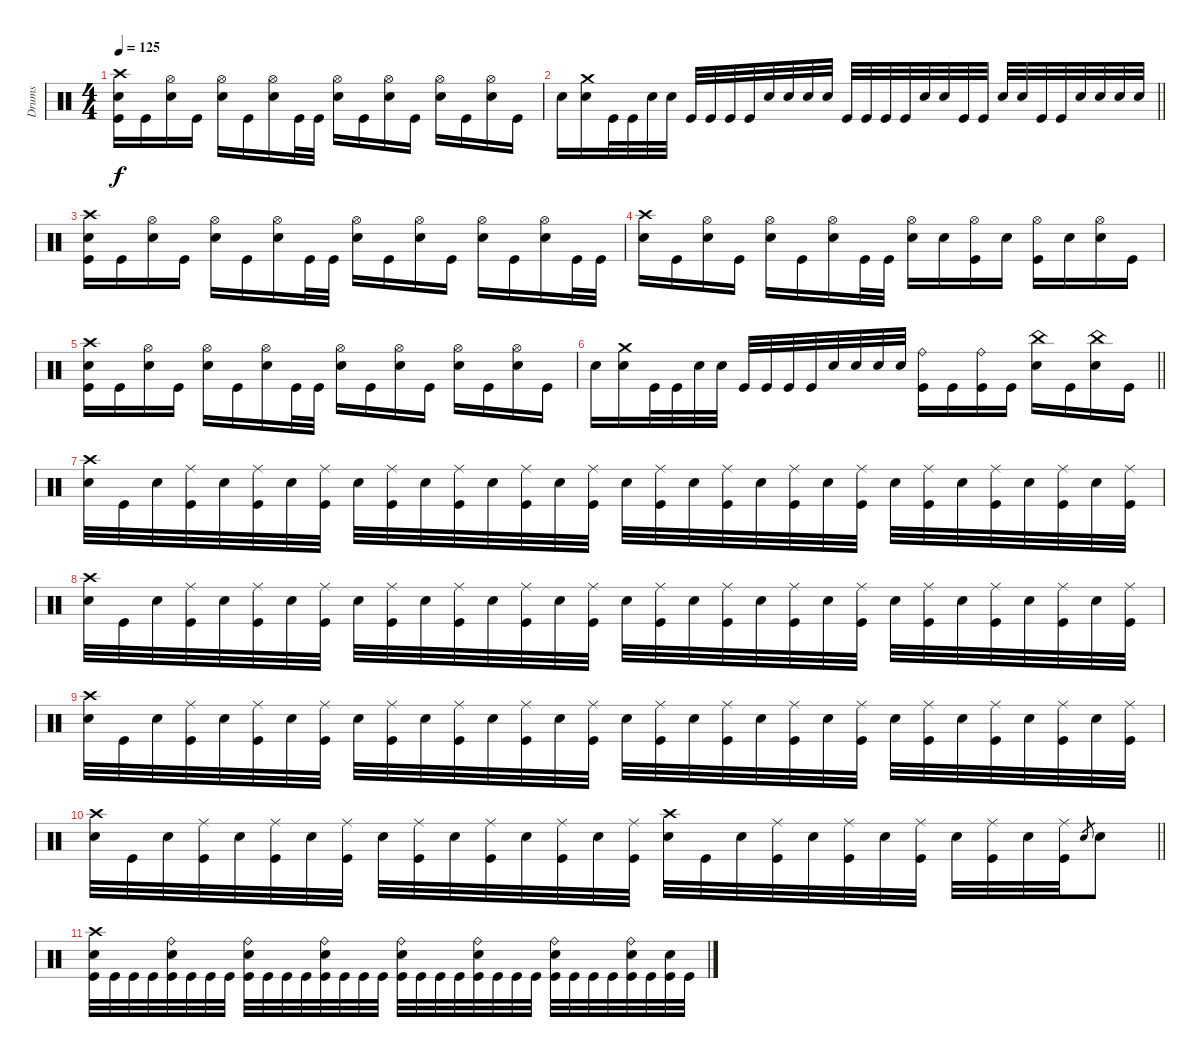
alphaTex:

\track ("Drums" "Drums") {instrument percussion}
\staff
\articulation defaults
\ts (4 4)
\tempo 125
\clef neutral
\ks c
("Crash high (hit)" "Electric Snare (hit)" "Kick (hit)").16{dy f} "Kick (hit)".16 ("Hi-Hat (open)" "Electric Snare (hit)").16 "Kick (hit)".16 ("Hi-Hat (open)" "Electric Snare (hit)").16 "Kick (hit)".16 ("Hi-Hat (open)" "Electric Snare (hit)").16 "Kick (hit)".32 "Kick (hit)".32 ("Hi-Hat (open)" "Electric Snare (hit)").16 "Kick (hit)".16 ("Hi-Hat (open)" "Electric Snare (hit)").16 "Kick (hit)".16 ("Hi-Hat (open)" "Electric Snare (hit)").16 "Kick (hit)".16 ("Hi-Hat (open)" "Electric Snare (hit)").16 "Kick (hit)".16 |
\barLineRight lightlight "Electric Snare (hit)".16
("Crash medium (hit)" "Electric Snare (hit)").16 "Kick (hit)".32 "Kick (hit)".32 "Electric Snare (hit)".32 "Electric Snare (hit)".32 "Kick (hit)".32 "Kick (hit)".32 "Kick (hit)".32 "Kick (hit)".32 "Electric Snare (hit)".32 "Electric Snare (hit)".32 "Electric Snare (hit)".32 "Electric Snare (hit)".32 "Kick (hit)".32 "Kick (hit)".32 "Kick (hit)".32 "Kick (hit)".32 "Electric Snare (hit)".32 "Electric Snare (hit)".32 "Kick (hit)".32 "Kick (hit)".32 "Electric Snare (hit)".32 "Electric Snare (hit)".32 "Kick (hit)".32 "Kick (hit)".32 "Electric Snare (hit)".32 "Electric Snare (hit)".32 "Electric Snare (hit)".32 "Electric Snare (hit)".32 |
("Crash high (hit)" "Electric Snare (hit)" "Kick (hit)").16 "Kick (hit)".16 ("Hi-Hat (open)" "Electric Snare (hit)").16 "Kick (hit)".16 ("Hi-Hat (open)" "Electric Snare (hit)").16 "Kick (hit)".16 ("Hi-Hat (open)" "Electric Snare (hit)").16 "Kick (hit)".32 "Kick (hit)".32 ("Hi-Hat (open)" "Electric Snare (hit)").16 "Kick (hit)".16 ("Hi-Hat (open)" "Electric Snare (hit)").16 "Kick (hit)".16 ("Hi-Hat (open)" "Electric Snare (hit)").16 "Kick (hit)".16 ("Hi-Hat (open)" "Electric Snare (hit)").16 "Kick (hit)".32 "Kick (hit)".32 |
("Crash high (hit)" "Electric Snare (hit)").16 "Kick (hit)".16 ("Hi-Hat (open)" "Electric Snare (hit)").16 "Kick (hit)".16 ("Hi-Hat (open)" "Electric Snare (hit)").16 "Kick (hit)".16 ("Hi-Hat (open)" "Electric Snare (hit)").16 "Kick (hit)".32 "Kick (hit)".32 ("Hi-Hat (open)" "Electric Snare (hit)").16 "Electric Snare (hit)".16 ("Hi-Hat (open)" "Kick (hit)").16 "Electric Snare (hit)".16 ("Hi-Hat (open)" "Kick (hit)").16 "Electric Snare (hit)".16 ("Hi-Hat (open)" "Electric Snare (hit)").16 "Kick (hit)".16 |
("Crash high (hit)" "Electric Snare (hit)" "Kick (hit)").16 "Kick (hit)".16 ("Hi-Hat (open)" "Electric Snare (hit)").16 "Kick (hit)".16 ("Hi-Hat (open)" "Electric Snare (hit)").16 "Kick (hit)".16 ("Hi-Hat (open)" "Electric Snare (hit)").16 "Kick (hit)".32 "Kick (hit)".32 ("Hi-Hat (open)" "Electric Snare (hit)").16 "Kick (hit)".16 ("Hi-Hat (open)" "Electric Snare (hit)").16 "Kick (hit)".16 ("Hi-Hat (open)" "Electric Snare (hit)").16 "Kick (hit)".16 ("Hi-Hat (open)" "Electric Snare (hit)").16 "Kick (hit)".16 |
\barLineRight lightlight "Electric Snare (hit)".16
("Crash medium (hit)" "Electric Snare (hit)").16 "Kick (hit)".32 "Kick (hit)".32 "Electric Snare (hit)".32 "Electric Snare (hit)".32 "Kick (hit)".32 "Kick (hit)".32 "Kick (hit)".32 "Kick (hit)".32 "Electric Snare (hit)".32 "Electric Snare (hit)".32 "Electric Snare (hit)".32 "Electric Snare (hit)".32 ("Ride (bell)" "Kick (hit)").16 "Kick (hit)".16 ("Ride (bell)" "Kick (hit)").16 "Kick (hit)".16 ("China (hit)" "Electric Snare (hit)").16 "Kick (hit)".16 ("China (hit)" "Electric Snare (hit)").16 "Kick (hit)".16 |
("Crash high (hit)" "Electric Snare (hit)").32 "Kick (hit)".32 "Electric Snare (hit)".32 ("Ride (middle)" "Kick (hit)").32 "Electric Snare (hit)".32 ("Ride (middle)" "Kick (hit)").32 "Electric Snare (hit)".32 ("Ride (middle)" "Kick (hit)").32 "Electric Snare (hit)".32 ("Ride (middle)" "Kick (hit)").32 "Electric Snare (hit)".32 ("Ride (middle)" "Kick (hit)").32 "Electric Snare (hit)".32 ("Ride (middle)" "Kick (hit)").32 "Electric Snare (hit)".32 ("Ride (middle)" "Kick (hit)").32 "Electric Snare (hit)".32 ("Ride (middle)" "Kick (hit)").32 "Electric Snare (hit)".32 ("Ride (middle)" "Kick (hit)").32 "Electric Snare (hit)".32 ("Ride (middle)" "Kick (hit)").32 "Electric Snare (hit)".32 ("Ride (middle)" "Kick (hit)").32 "Electric Snare (hit)".32 ("Ride (middle)" "Kick (hit)").32 "Electric Snare (hit)".32 ("Ride (middle)" "Kick (hit)").32 "Electric Snare (hit)".32 ("Ride (middle)" "Kick (hit)").32 "Electric Snare (hit)".32 ("Ride (middle)" "Kick (hit)").32 |
("Crash high (hit)" "Electric Snare (hit)").32 "Kick (hit)".32 "Electric Snare (hit)".32 ("Ride (middle)" "Kick (hit)").32 "Electric Snare (hit)".32 ("Ride (middle)" "Kick (hit)").32 "Electric Snare (hit)".32 ("Ride (middle)" "Kick (hit)").32 "Electric Snare (hit)".32 ("Ride (middle)" "Kick (hit)").32 "Electric Snare (hit)".32 ("Ride (middle)" "Kick (hit)").32 "Electric Snare (hit)".32 ("Ride (middle)" "Kick (hit)").32 "Electric Snare (hit)".32 ("Ride (middle)" "Kick (hit)").32 "Electric Snare (hit)".32 ("Ride (middle)" "Kick (hit)").32 "Electric Snare (hit)".32 ("Ride (middle)" "Kick (hit)").32 "Electric Snare (hit)".32 ("Ride (middle)" "Kick (hit)").32 "Electric Snare (hit)".32 ("Ride (middle)" "Kick (hit)").32 "Electric Snare (hit)".32 ("Ride (middle)" "Kick (hit)").32 "Electric Snare (hit)".32 ("Ride (middle)" "Kick (hit)").32 "Electric Snare (hit)".32 ("Ride (middle)" "Kick (hit)").32 "Electric Snare (hit)".32 ("Ride (middle)" "Kick (hit)").32 |
("Crash high (hit)" "Electric Snare (hit)").32 "Kick (hit)".32 "Electric Snare (hit)".32 ("Ride (middle)" "Kick (hit)").32 "Electric Snare (hit)".32 ("Ride (middle)" "Kick (hit)").32 "Electric Snare (hit)".32 ("Ride (middle)" "Kick (hit)").32 "Electric Snare (hit)".32 ("Ride (middle)" "Kick (hit)").32 "Electric Snare (hit)".32 ("Ride (middle)" "Kick (hit)").32 "Electric Snare (hit)".32 ("Ride (middle)" "Kick (hit)").32 "Electric Snare (hit)".32 ("Ride (middle)" "Kick (hit)").32 "Electric Snare (hit)".32 ("Ride (middle)" "Kick (hit)").32 "Electric Snare (hit)".32 ("Ride (middle)" "Kick (hit)").32 "Electric Snare (hit)".32 ("Ride (middle)" "Kick (hit)").32 "Electric Snare (hit)".32 ("Ride (middle)" "Kick (hit)").32 "Electric Snare (hit)".32 ("Ride (middle)" "Kick (hit)").32 "Electric Snare (hit)".32 ("Ride (middle)" "Kick (hit)").32 "Electric Snare (hit)".32 ("Ride (middle)" "Kick (hit)").32 "Electric Snare (hit)".32 ("Ride (middle)" "Kick (hit)").32 |
\barLineRight lightlight
("Crash high (hit)" "Electric Snare (hit)").32 "Kick (hit)".32 "Electric Snare (hit)".32 ("Ride (middle)" "Kick (hit)").32 "Electric Snare (hit)".32 ("Ride (middle)" "Kick (hit)").32 "Electric Snare (hit)".32 ("Ride (middle)" "Kick (hit)").32 "Electric Snare (hit)".32 ("Ride (middle)" "Kick (hit)").32 "Electric Snare (hit)".32 ("Ride (middle)" "Kick (hit)").32 "Electric Snare (hit)".32 ("Ride (middle)" "Kick (hit)").32 "Electric Snare (hit)".32 ("Ride (middle)" "Kick (hit)").32 ("Crash high (hit)" "Electric Snare (hit)").32 "Kick (hit)".32 "Electric Snare (hit)".32 ("Ride (middle)" "Kick (hit)").32 "Electric Snare (hit)".32 ("Ride (middle)" "Kick (hit)").32 "Electric Snare (hit)".32 ("Ride (middle)" "Kick (hit)").32 "Electric Snare (hit)".32 ("Ride (middle)" "Kick (hit)").32 "Electric Snare (hit)".32 ("Ride (middle)" "Kick (hit)").32 "Electric Snare (hit)".8{gr} "Electric Snare (hit)".8 |
("Crash high (hit)" "Electric Snare (hit)" "Kick (hit)").32 "Kick (hit)".32 "Kick (hit)".32 "Kick (hit)".32 ("Ride (bell)" "Electric Snare (hit)" "Kick (hit)").32 "Kick (hit)".32 "Kick (hit)".32 "Kick (hit)".32 ("Ride (bell)" "Electric Snare (hit)" "Kick (hit)").32 "Kick (hit)".32 "Kick (hit)".32 "Kick (hit)".32 ("Ride (bell)" "Electric Snare (hit)" "Kick (hit)").32 "Kick (hit)".32 "Kick (hit)".32 "Kick (hit)".32 ("Ride (bell)" "Electric Snare (hit)" "Kick (hit)").32 "Kick (hit)".32 "Kick (hit)".32 "Kick (hit)".32 ("Ride (bell)" "Electric Snare (hit)" "Kick (hit)").32 "Kick (hit)".32 "Kick (hit)".32 "Kick (hit)".32 ("Ride (bell)" "Electric Snare (hit)" "Kick (hit)").32 "Kick (hit)".32 "Kick (hit)".32 "Kick (hit)".32 ("Ride (bell)" "Electric Snare (hit)" "Kick (hit)").32 "Kick (hit)".32 ("Electric Snare (hit)" "Kick (hit)").32 "Kick (hit)".32
